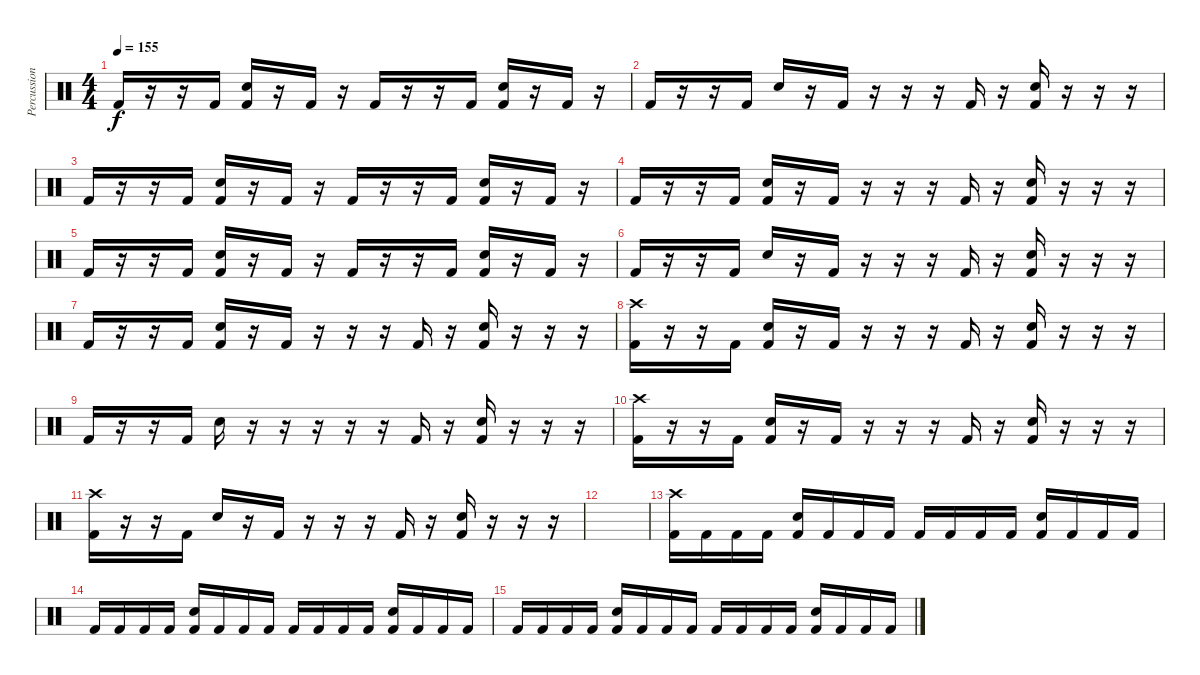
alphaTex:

\track ("Percussion" "Percussion") {instrument percussion}
\staff {score}
\articulation defaults
\ts (4 4)
\tempo 155
\clef neutral
\ks c "Kick (hit) 2".16{dy f}
r.16 r.16 "Kick (hit) 2".16 ("Kick (hit) 2" "Snare (hit) 2").16 r.16 "Kick (hit) 2".16 r.16 "Kick (hit) 2".16 r.16 r.16 "Kick (hit) 2".16 ("Kick (hit) 2" "Snare (hit) 2").16 r.16 "Kick (hit) 2".16 r.16 |
"Kick (hit) 2".16 r.16 r.16 "Kick (hit) 2".16 "Snare (hit) 2".16 r.16 "Kick (hit) 2".16 r.16 r.16 r.16 "Kick (hit) 2".16 r.16 ("Kick (hit) 2" "Snare (hit) 2").16 r.16 r.16 r.16 |
"Kick (hit) 2".16 r.16 r.16 "Kick (hit) 2".16 ("Kick (hit) 2" "Snare (hit) 2").16 r.16 "Kick (hit) 2".16 r.16 "Kick (hit) 2".16 r.16 r.16 "Kick (hit) 2".16 ("Kick (hit) 2" "Snare (hit) 2").16 r.16 "Kick (hit) 2".16 r.16 |
"Kick (hit) 2".16 r.16 r.16 "Kick (hit) 2".16 ("Kick (hit) 2" "Snare (hit) 2").16 r.16 "Kick (hit) 2".16 r.16 r.16 r.16 "Kick (hit) 2".16 r.16 ("Kick (hit) 2" "Snare (hit) 2").16 r.16 r.16 r.16 |
"Kick (hit) 2".16 r.16 r.16 "Kick (hit) 2".16 ("Kick (hit) 2" "Snare (hit) 2").16 r.16 "Kick (hit) 2".16 r.16 "Kick (hit) 2".16 r.16 r.16 "Kick (hit) 2".16 ("Kick (hit) 2" "Snare (hit) 2").16 r.16 "Kick (hit) 2".16 r.16 |
"Kick (hit) 2".16 r.16 r.16 "Kick (hit) 2".16 "Snare (hit) 2".16 r.16 "Kick (hit) 2".16 r.16 r.16 r.16 "Kick (hit) 2".16 r.16 ("Kick (hit) 2" "Snare (hit) 2").16 r.16 r.16 r.16 |
"Kick (hit) 2".16 r.16 r.16 "Kick (hit) 2".16 ("Kick (hit) 2" "Snare (hit) 2").16 r.16 "Kick (hit) 2".16 r.16 r.16 r.16 "Kick (hit) 2".16 r.16 ("Kick (hit) 2" "Snare (hit) 2").16 r.16 r.16 r.16 |
("Kick (hit) 2" "Crash high (hit)").16 r.16 r.16 "Kick (hit) 2".16 ("Kick (hit) 2" "Snare (hit) 2").16 r.16 "Kick (hit) 2".16 r.16 r.16 r.16 "Kick (hit) 2".16 r.16 ("Kick (hit) 2" "Snare (hit) 2").16 r.16 r.16 r.16 |
"Kick (hit) 2".16 r.16 r.16 "Kick (hit) 2".16 "Snare (hit) 2".16 r.16 r.16 r.16 r.16 r.16 "Kick (hit) 2".16 r.16 ("Kick (hit) 2" "Snare (hit) 2").16 r.16 r.16 r.16 |
("Kick (hit) 2" "Crash high (hit)").16 r.16 r.16 "Kick (hit) 2".16 ("Kick (hit) 2" "Snare (hit) 2").16 r.16 "Kick (hit) 2".16 r.16 r.16 r.16 "Kick (hit) 2".16 r.16 ("Kick (hit) 2" "Snare (hit) 2").16 r.16 r.16 r.16 |
("Kick (hit) 2" "Crash high (hit)").16 r.16 r.16 "Kick (hit) 2".16 "Snare (hit) 2".16 r.16 "Kick (hit) 2".16 r.16 r.16 r.16 "Kick (hit) 2".16 r.16 ("Kick (hit) 2" "Snare (hit) 2").16 r.16 r.16 r.16 |
|
("Kick (hit) 2" "Crash high (hit)").16 "Kick (hit) 2".16 "Kick (hit) 2".16 "Kick (hit) 2".16 ("Kick (hit) 2" "Snare (hit) 2").16 "Kick (hit) 2".16 "Kick (hit) 2".16 "Kick (hit) 2".16 "Kick (hit) 2".16 "Kick (hit) 2".16 "Kick (hit) 2".16 "Kick (hit) 2".16 ("Kick (hit) 2" "Snare (hit) 2").16 "Kick (hit) 2".16 "Kick (hit) 2".16 "Kick (hit) 2".16 |
"Kick (hit) 2".16 "Kick (hit) 2".16 "Kick (hit) 2".16 "Kick (hit) 2".16 ("Kick (hit) 2" "Snare (hit) 2").16 "Kick (hit) 2".16 "Kick (hit) 2".16 "Kick (hit) 2".16 "Kick (hit) 2".16 "Kick (hit) 2".16 "Kick (hit) 2".16 "Kick (hit) 2".16 ("Kick (hit) 2" "Snare (hit) 2").16 "Kick (hit) 2".16 "Kick (hit) 2".16 "Kick (hit) 2".16 |
"Kick (hit) 2".16 "Kick (hit) 2".16 "Kick (hit) 2".16 "Kick (hit) 2".16 ("Kick (hit) 2" "Snare (hit) 2").16 "Kick (hit) 2".16 "Kick (hit) 2".16 "Kick (hit) 2".16 "Kick (hit) 2".16 "Kick (hit) 2".16 "Kick (hit) 2".16 "Kick (hit) 2".16 ("Kick (hit) 2" "Snare (hit) 2").16 "Kick (hit) 2".16 "Kick (hit) 2".16 "Kick (hit) 2".16
